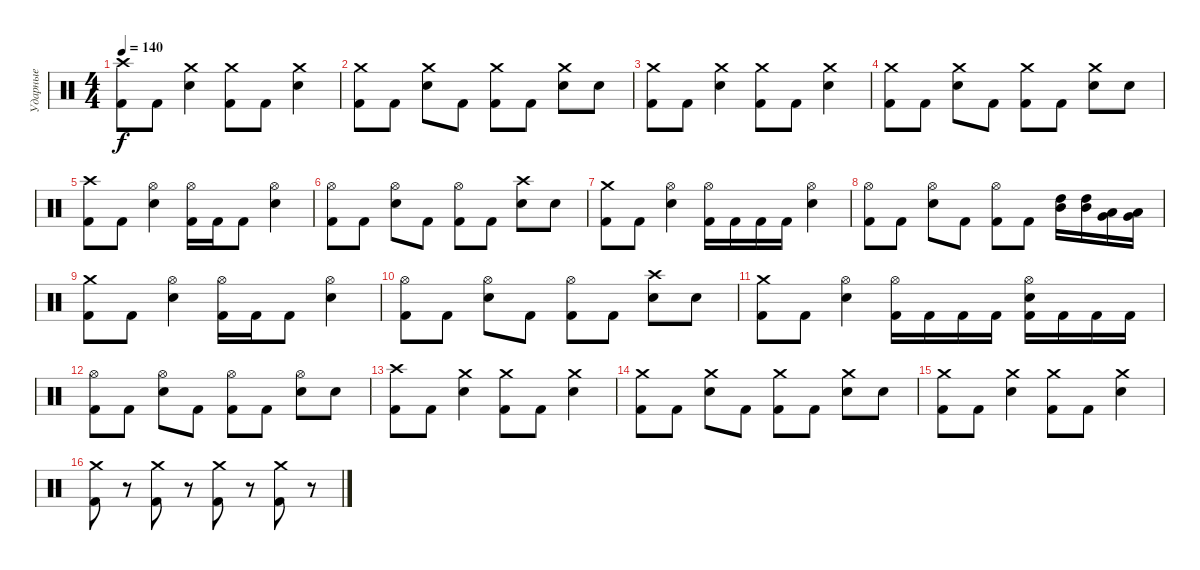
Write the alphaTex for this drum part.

\track ("Ударные" "Ударные") {instrument percussion}
\staff {score}
\articulation defaults
\ts (4 4)
\tempo 140
\clef neutral
\ks c
("Crash high (hit)" "Kick (hit) 2").8{dy f} "Kick (hit) 2".8 ("Crash medium (hit)" "Electric Snare (hit)").4 ("Crash medium (hit)" "Kick (hit) 2").8 "Kick (hit) 2".8 ("Crash medium (hit)" "Electric Snare (hit)").4 |
("Crash medium (hit)" "Kick (hit) 2").8 "Kick (hit) 2".8 ("Crash medium (hit)" "Electric Snare (hit)").8 "Kick (hit) 2".8 ("Crash medium (hit)" "Kick (hit) 2").8 "Kick (hit) 2".8 ("Crash medium (hit)" "Electric Snare (hit)").8 "Electric Snare (hit)".8 |
("Crash medium (hit)" "Kick (hit) 2").8 "Kick (hit) 2".8 ("Crash medium (hit)" "Electric Snare (hit)").4 ("Crash medium (hit)" "Kick (hit) 2").8 "Kick (hit) 2".8 ("Crash medium (hit)" "Electric Snare (hit)").4 |
("Crash medium (hit)" "Kick (hit) 2").8 "Kick (hit) 2".8 ("Crash medium (hit)" "Electric Snare (hit)").8 "Kick (hit) 2".8 ("Crash medium (hit)" "Kick (hit) 2").8 "Kick (hit) 2".8 ("Crash medium (hit)" "Electric Snare (hit)").8 "Electric Snare (hit)".8 |
("Crash high (hit)" "Kick (hit) 2").8 "Kick (hit) 2".8 ("Hi-Hat (open)" "Electric Snare (hit)").4 ("Hi-Hat (open)" "Kick (hit) 2").16 "Kick (hit) 2".16 "Kick (hit) 2".8 ("Hi-Hat (open)" "Electric Snare (hit)").4 |
("Hi-Hat (open)" "Kick (hit) 2").8 "Kick (hit) 2".8 ("Hi-Hat (open)" "Electric Snare (hit)").8 "Kick (hit) 2".8 ("Hi-Hat (open)" "Kick (hit) 2").8 "Kick (hit) 2".8 ("Crash high (hit)" "Electric Snare (hit)").8 "Electric Snare (hit)".8 |
("Crash medium (hit)" "Kick (hit) 2").8 "Kick (hit) 2".8 ("Hi-Hat (open)" "Electric Snare (hit)").4 ("Hi-Hat (open)" "Kick (hit) 2").16 "Kick (hit) 2".16 "Kick (hit) 2".16 "Kick (hit) 2".16 ("Hi-Hat (open)" "Electric Snare (hit)").4 |
("Hi-Hat (open)" "Kick (hit) 2").8 "Kick (hit) 2".8 ("Hi-Hat (open)" "Electric Snare (hit)").8 "Kick (hit) 2".8 ("Hi-Hat (open)" "Kick (hit) 2").8 "Kick (hit) 2".8 ("Mid Tom (hit)" "High Tom (hit)").16 ("Mid Tom (hit)" "High Tom (hit)").16 ("Low Tom (hit)" "Very Low Tom (hit)").16 ("Low Tom (hit)" "Very Low Tom (hit)").16 |
("Crash medium (hit)" "Kick (hit) 2").8 "Kick (hit) 2".8 ("Hi-Hat (open)" "Electric Snare (hit)").4 ("Hi-Hat (open)" "Kick (hit) 2").16 "Kick (hit) 2".16 "Kick (hit) 2".8 ("Hi-Hat (open)" "Electric Snare (hit)").4 |
("Hi-Hat (open)" "Kick (hit) 2").8 "Kick (hit) 2".8 ("Hi-Hat (open)" "Electric Snare (hit)").8 "Kick (hit) 2".8 ("Hi-Hat (open)" "Kick (hit) 2").8 "Kick (hit) 2".8 ("Crash high (hit)" "Electric Snare (hit)").8 "Electric Snare (hit)".8 |
("Crash medium (hit)" "Kick (hit) 2").8 "Kick (hit) 2".8 ("Hi-Hat (open)" "Electric Snare (hit)").4 ("Hi-Hat (open)" "Kick (hit) 2").16 "Kick (hit) 2".16 "Kick (hit) 2".16 "Kick (hit) 2".16 ("Hi-Hat (open)" "Electric Snare (hit)" "Kick (hit) 2").16 "Kick (hit) 2".16 "Kick (hit) 2".16 "Kick (hit) 2".16 |
("Hi-Hat (open)" "Kick (hit) 2").8 "Kick (hit) 2".8 ("Hi-Hat (open)" "Electric Snare (hit)").8 "Kick (hit) 2".8 ("Hi-Hat (open)" "Kick (hit) 2").8 "Kick (hit) 2".8 ("Hi-Hat (open)" "Electric Snare (hit)").8 "Electric Snare (hit)".8 |
("Crash high (hit)" "Kick (hit) 2").8 "Kick (hit) 2".8 ("Crash medium (hit)" "Electric Snare (hit)").4 ("Crash medium (hit)" "Kick (hit) 2").8 "Kick (hit) 2".8 ("Crash medium (hit)" "Electric Snare (hit)").4 |
("Crash medium (hit)" "Kick (hit) 2").8 "Kick (hit) 2".8 ("Crash medium (hit)" "Electric Snare (hit)").8 "Kick (hit) 2".8 ("Crash medium (hit)" "Kick (hit) 2").8 "Kick (hit) 2".8 ("Crash medium (hit)" "Electric Snare (hit)").8 "Electric Snare (hit)".8 |
("Crash medium (hit)" "Kick (hit) 2").8 "Kick (hit) 2".8 ("Crash medium (hit)" "Electric Snare (hit)").4 ("Crash medium (hit)" "Kick (hit) 2").8 "Kick (hit) 2".8 ("Crash medium (hit)" "Electric Snare (hit)").4 |
("Crash medium (hit)" "Kick (hit) 2").8 r.8 ("Crash medium (hit)" "Kick (hit) 2").8 r.8 ("Crash medium (hit)" "Kick (hit) 2").8 r.8 ("Crash medium (hit)" "Kick (hit) 2").8 r.8
